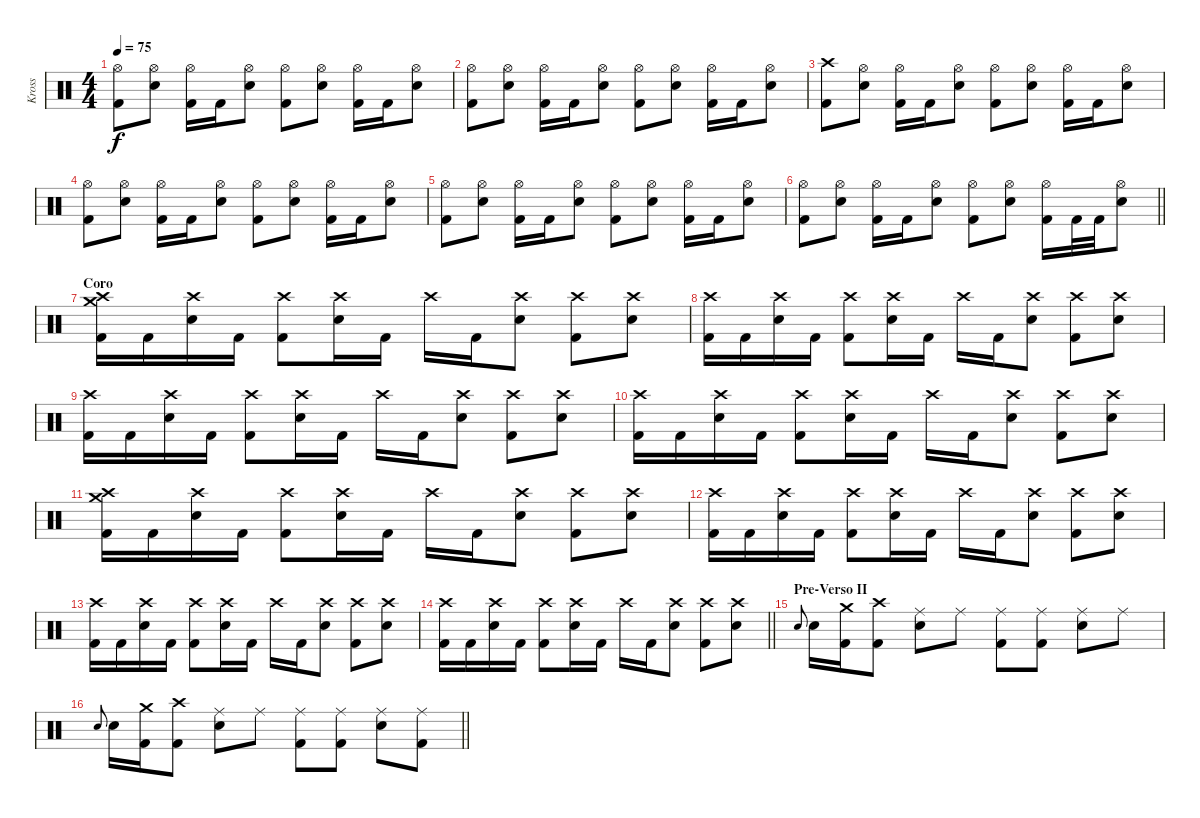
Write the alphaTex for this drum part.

\track ("Kross" "Kross") {instrument percussion}
\staff
\articulation defaults
\ts (4 4)
\tempo 75
\clef neutral
\ks c
("Hi-Hat (open)" "Kick (hit) 2").8{dy f} ("Hi-Hat (open)" "Electric Snare (hit)").8 ("Hi-Hat (open)" "Kick (hit) 2").16 "Kick (hit) 2".16 ("Hi-Hat (open)" "Electric Snare (hit)").8 ("Hi-Hat (open)" "Kick (hit) 2").8 ("Hi-Hat (open)" "Electric Snare (hit)").8 ("Hi-Hat (open)" "Kick (hit) 2").16 "Kick (hit) 2".16 ("Hi-Hat (open)" "Electric Snare (hit)").8 |
("Hi-Hat (open)" "Kick (hit) 2").8 ("Hi-Hat (open)" "Electric Snare (hit)").8 ("Hi-Hat (open)" "Kick (hit) 2").16 "Kick (hit) 2".16 ("Hi-Hat (open)" "Electric Snare (hit)").8 ("Hi-Hat (open)" "Kick (hit) 2").8 ("Hi-Hat (open)" "Electric Snare (hit)").8 ("Hi-Hat (open)" "Kick (hit) 2").16 "Kick (hit) 2".16 ("Hi-Hat (open)" "Electric Snare (hit)").8 |
("Crash high (hit)" "Kick (hit) 2").8 ("Hi-Hat (open)" "Electric Snare (hit)").8 ("Hi-Hat (open)" "Kick (hit) 2").16 "Kick (hit) 2".16 ("Hi-Hat (open)" "Electric Snare (hit)").8 ("Hi-Hat (open)" "Kick (hit) 2").8 ("Hi-Hat (open)" "Electric Snare (hit)").8 ("Hi-Hat (open)" "Kick (hit) 2").16 "Kick (hit) 2".16 ("Hi-Hat (open)" "Electric Snare (hit)").8 |
("Hi-Hat (open)" "Kick (hit) 2").8 ("Hi-Hat (open)" "Electric Snare (hit)").8 ("Hi-Hat (open)" "Kick (hit) 2").16 "Kick (hit) 2".16 ("Hi-Hat (open)" "Electric Snare (hit)").8 ("Hi-Hat (open)" "Kick (hit) 2").8 ("Hi-Hat (open)" "Electric Snare (hit)").8 ("Hi-Hat (open)" "Kick (hit) 2").16 "Kick (hit) 2".16 ("Hi-Hat (open)" "Electric Snare (hit)").8 |
("Hi-Hat (open)" "Kick (hit) 2").8 ("Hi-Hat (open)" "Electric Snare (hit)").8 ("Hi-Hat (open)" "Kick (hit) 2").16 "Kick (hit) 2".16 ("Hi-Hat (open)" "Electric Snare (hit)").8 ("Hi-Hat (open)" "Kick (hit) 2").8 ("Hi-Hat (open)" "Electric Snare (hit)").8 ("Hi-Hat (open)" "Kick (hit) 2").16 "Kick (hit) 2".16 ("Hi-Hat (open)" "Electric Snare (hit)").8 |
\barLineRight lightlight
("Hi-Hat (open)" "Kick (hit) 2").8 ("Hi-Hat (open)" "Electric Snare (hit)").8 ("Hi-Hat (open)" "Kick (hit) 2").16 "Kick (hit) 2".16 ("Hi-Hat (open)" "Electric Snare (hit)").8 ("Hi-Hat (open)" "Kick (hit) 2").8 ("Hi-Hat (open)" "Electric Snare (hit)").8 ("Hi-Hat (open)" "Kick (hit) 2").16 "Kick (hit) 2".32 "Kick (hit) 2".32 ("Hi-Hat (open)" "Electric Snare (hit)").8 |
\section ("" "Coro")
("Crash medium (hit)" "Crash high (hit)" "Kick (hit) 2").16 "Kick (hit) 2".16 ("Crash high (hit)" "Electric Snare (hit)").16 "Kick (hit) 2".16 ("Crash high (hit)" "Kick (hit) 2").8 ("Crash high (hit)" "Electric Snare (hit)").16 "Kick (hit) 2".16 "Crash high (hit)".16 "Kick (hit) 2".16 ("Crash high (hit)" "Electric Snare (hit)").8 ("Crash high (hit)" "Kick (hit) 2").8 ("Crash high (hit)" "Electric Snare (hit)").8 |
("Crash high (hit)" "Kick (hit) 2").16 "Kick (hit) 2".16 ("Crash high (hit)" "Electric Snare (hit)").16 "Kick (hit) 2".16 ("Crash high (hit)" "Kick (hit) 2").8 ("Crash high (hit)" "Electric Snare (hit)").16 "Kick (hit) 2".16 "Crash high (hit)".16 "Kick (hit) 2".16 ("Crash high (hit)" "Electric Snare (hit)").8 ("Crash high (hit)" "Kick (hit) 2").8 ("Crash high (hit)" "Electric Snare (hit)").8 |
("Crash high (hit)" "Kick (hit) 2").16 "Kick (hit) 2".16 ("Crash high (hit)" "Electric Snare (hit)").16 "Kick (hit) 2".16 ("Crash high (hit)" "Kick (hit) 2").8 ("Crash high (hit)" "Electric Snare (hit)").16 "Kick (hit) 2".16 "Crash high (hit)".16 "Kick (hit) 2".16 ("Crash high (hit)" "Electric Snare (hit)").8 ("Crash high (hit)" "Kick (hit) 2").8 ("Crash high (hit)" "Electric Snare (hit)").8 |
("Crash high (hit)" "Kick (hit) 2").16 "Kick (hit) 2".16 ("Crash high (hit)" "Electric Snare (hit)").16 "Kick (hit) 2".16 ("Crash high (hit)" "Kick (hit) 2").8 ("Crash high (hit)" "Electric Snare (hit)").16 "Kick (hit) 2".16 "Crash high (hit)".16 "Kick (hit) 2".16 ("Crash high (hit)" "Electric Snare (hit)").8 ("Crash high (hit)" "Kick (hit) 2").8 ("Crash high (hit)" "Electric Snare (hit)").8 |
("Crash medium (hit)" "Crash high (hit)" "Kick (hit) 2").16 "Kick (hit) 2".16 ("Crash high (hit)" "Electric Snare (hit)").16 "Kick (hit) 2".16 ("Crash high (hit)" "Kick (hit) 2").8 ("Crash high (hit)" "Electric Snare (hit)").16 "Kick (hit) 2".16 "Crash high (hit)".16 "Kick (hit) 2".16 ("Crash high (hit)" "Electric Snare (hit)").8 ("Crash high (hit)" "Kick (hit) 2").8 ("Crash high (hit)" "Electric Snare (hit)").8 |
("Crash high (hit)" "Kick (hit) 2").16 "Kick (hit) 2".16 ("Crash high (hit)" "Electric Snare (hit)").16 "Kick (hit) 2".16 ("Crash high (hit)" "Kick (hit) 2").8 ("Crash high (hit)" "Electric Snare (hit)").16 "Kick (hit) 2".16 "Crash high (hit)".16 "Kick (hit) 2".16 ("Crash high (hit)" "Electric Snare (hit)").8 ("Crash high (hit)" "Kick (hit) 2").8 ("Crash high (hit)" "Electric Snare (hit)").8 |
("Crash high (hit)" "Kick (hit) 2").16 "Kick (hit) 2".16 ("Crash high (hit)" "Electric Snare (hit)").16 "Kick (hit) 2".16 ("Crash high (hit)" "Kick (hit) 2").8 ("Crash high (hit)" "Electric Snare (hit)").16 "Kick (hit) 2".16 "Crash high (hit)".16 "Kick (hit) 2".16 ("Crash high (hit)" "Electric Snare (hit)").8 ("Crash high (hit)" "Kick (hit) 2").8 ("Crash high (hit)" "Electric Snare (hit)").8 |
\barLineRight lightlight
("Crash high (hit)" "Kick (hit) 2").16 "Kick (hit) 2".16 ("Crash high (hit)" "Electric Snare (hit)").16 "Kick (hit) 2".16 ("Crash high (hit)" "Kick (hit) 2").8 ("Crash high (hit)" "Electric Snare (hit)").16 "Kick (hit) 2".16 "Crash high (hit)".16 "Kick (hit) 2".16 ("Crash high (hit)" "Electric Snare (hit)").8 ("Crash high (hit)" "Kick (hit) 2").8 ("Crash high (hit)" "Electric Snare (hit)").8 |
\section ("" "Pre-Verso II")
"Electric Snare (hit)".8{gr onbeat} "Electric Snare (hit)".16 ("Crash medium (hit)" "Kick (hit) 2").16 ("Crash high (hit)" "Kick (hit) 2").8 ("Ride (middle)" "Electric Snare (hit)").8 "Ride (middle)".8 ("Ride (middle)" "Kick (hit) 2").8 ("Ride (middle)" "Kick (hit) 2").8 ("Ride (middle)" "Electric Snare (hit)").8 "Ride (middle)".8 |
\barLineRight lightlight "Electric Snare (hit)".8{gr onbeat} "Electric Snare (hit)".16
("Crash medium (hit)" "Kick (hit) 2").16 ("Crash high (hit)" "Kick (hit) 2").8 ("Ride (middle)" "Electric Snare (hit)").8 "Ride (middle)".8 ("Ride (middle)" "Kick (hit) 2").8 ("Ride (middle)" "Kick (hit) 2").8 ("Ride (middle)" "Electric Snare (hit)").8 ("Ride (middle)" "Kick (hit) 2").8
